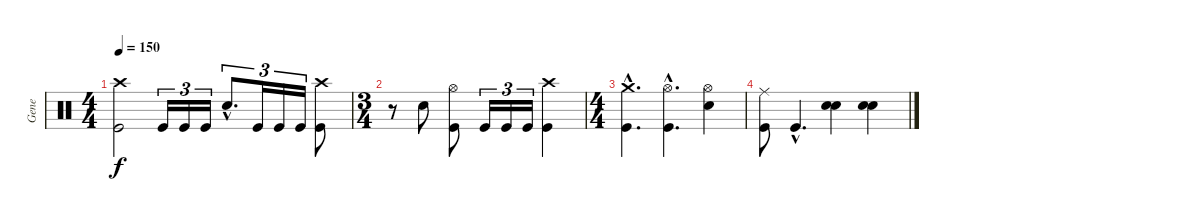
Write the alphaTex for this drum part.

\track ("Gene" "Gene") {instrument percussion}
\staff {score}
\articulation defaults
\ts (4 4)
\tempo 150
\clef neutral
\ks c
("Kick (hit)" "Crash high (hit)").2{dy f} "Kick (hit)".16{tu (3 2)} "Kick (hit)".16{tu (3 2)} "Kick (hit)".16{tu (3 2)} "Snare (hit) 2"{hac}.8{d tu (3 2)} "Kick (hit)".16{tu (3 2)} "Kick (hit)".16{tu (3 2)} "Kick (hit)".16{tu (3 2)} ("Kick (hit)" "Crash high (hit)").8 |
\ts (3 4)
r.8 "Snare (hit) 2".8 ("Kick (hit)" "Hi-Hat (open)").8 "Kick (hit)".16{tu (3 2)} "Kick (hit)".16{tu (3 2)} "Kick (hit)".16{tu (3 2)} ("Kick (hit)" "Crash high (hit)").4 |
\ts (4 4)
("Crash medium (hit)"{hac} "Kick (hit)"{hac}).4{d} ("Hi-Hat (open)"{hac} "Kick (hit)"{hac}).4{d} ("Hi-Hat (open)" "Snare (hit) 2").4 |
("Ride (middle)" "Kick (hit)").8 "Kick (hit)"{hac}.4{d} ("Snare (hit) 2" "Snare (hit) 2").4 ("Snare (hit) 2" "Snare (hit) 2").4
